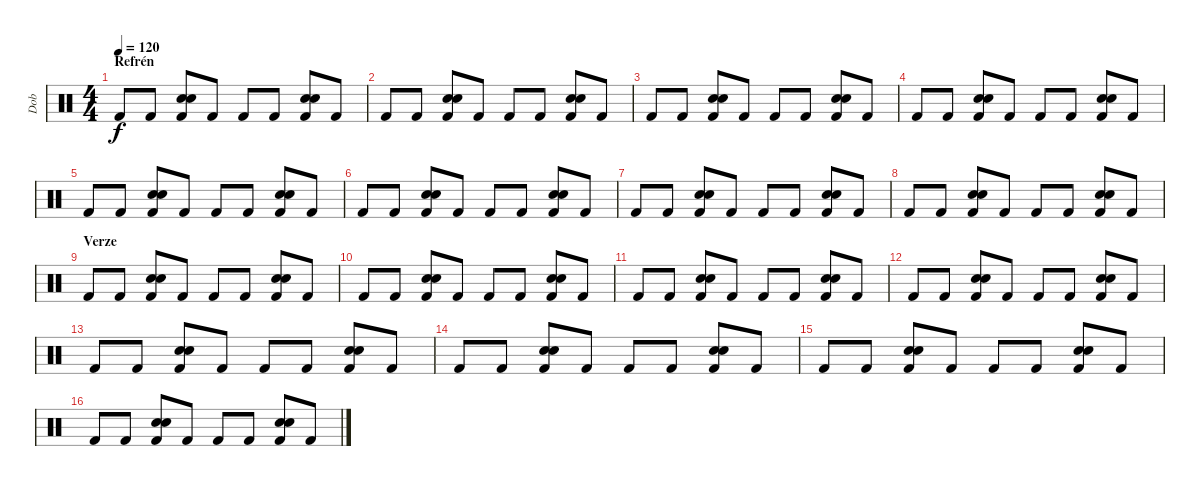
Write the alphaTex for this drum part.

\track ("Dob" "Dob") {instrument percussion}
\staff {score}
\articulation defaults
\ts (4 4)
\section ("" "Refrén")
\tempo 120
\clef neutral
\ks c "Kick (hit) 2".8{dy f} "Kick (hit) 2".8
("Snare (hit) 2" "Snare (hit) 2" "Kick (hit) 2").8 "Kick (hit) 2".8 "Kick (hit) 2".8 "Kick (hit) 2".8 ("Snare (hit) 2" "Snare (hit) 2" "Kick (hit) 2").8 "Kick (hit) 2".8 |
"Kick (hit) 2".8 "Kick (hit) 2".8 ("Snare (hit) 2" "Snare (hit) 2" "Kick (hit) 2").8 "Kick (hit) 2".8 "Kick (hit) 2".8 "Kick (hit) 2".8 ("Snare (hit) 2" "Snare (hit) 2" "Kick (hit) 2").8 "Kick (hit) 2".8 |
"Kick (hit) 2".8 "Kick (hit) 2".8 ("Snare (hit) 2" "Snare (hit) 2" "Kick (hit) 2").8 "Kick (hit) 2".8 "Kick (hit) 2".8 "Kick (hit) 2".8 ("Snare (hit) 2" "Snare (hit) 2" "Kick (hit) 2").8 "Kick (hit) 2".8 |
"Kick (hit) 2".8 "Kick (hit) 2".8 ("Snare (hit) 2" "Snare (hit) 2" "Kick (hit) 2").8 "Kick (hit) 2".8 "Kick (hit) 2".8 "Kick (hit) 2".8 ("Snare (hit) 2" "Snare (hit) 2" "Kick (hit) 2").8 "Kick (hit) 2".8 |
"Kick (hit) 2".8 "Kick (hit) 2".8 ("Snare (hit) 2" "Snare (hit) 2" "Kick (hit) 2").8 "Kick (hit) 2".8 "Kick (hit) 2".8 "Kick (hit) 2".8 ("Snare (hit) 2" "Snare (hit) 2" "Kick (hit) 2").8 "Kick (hit) 2".8 |
"Kick (hit) 2".8 "Kick (hit) 2".8 ("Snare (hit) 2" "Snare (hit) 2" "Kick (hit) 2").8 "Kick (hit) 2".8 "Kick (hit) 2".8 "Kick (hit) 2".8 ("Snare (hit) 2" "Snare (hit) 2" "Kick (hit) 2").8 "Kick (hit) 2".8 |
"Kick (hit) 2".8 "Kick (hit) 2".8 ("Snare (hit) 2" "Snare (hit) 2" "Kick (hit) 2").8 "Kick (hit) 2".8 "Kick (hit) 2".8 "Kick (hit) 2".8 ("Snare (hit) 2" "Snare (hit) 2" "Kick (hit) 2").8 "Kick (hit) 2".8 |
"Kick (hit) 2".8 "Kick (hit) 2".8 ("Snare (hit) 2" "Snare (hit) 2" "Kick (hit) 2").8 "Kick (hit) 2".8 "Kick (hit) 2".8 "Kick (hit) 2".8 ("Snare (hit) 2" "Snare (hit) 2" "Kick (hit) 2").8 "Kick (hit) 2".8 |
\section ("" "Verze")
"Kick (hit) 2".8 "Kick (hit) 2".8 ("Snare (hit) 2" "Snare (hit) 2" "Kick (hit) 2").8 "Kick (hit) 2".8 "Kick (hit) 2".8 "Kick (hit) 2".8 ("Snare (hit) 2" "Snare (hit) 2" "Kick (hit) 2").8 "Kick (hit) 2".8 |
"Kick (hit) 2".8 "Kick (hit) 2".8 ("Snare (hit) 2" "Snare (hit) 2" "Kick (hit) 2").8 "Kick (hit) 2".8 "Kick (hit) 2".8 "Kick (hit) 2".8 ("Snare (hit) 2" "Snare (hit) 2" "Kick (hit) 2").8 "Kick (hit) 2".8 |
"Kick (hit) 2".8 "Kick (hit) 2".8 ("Snare (hit) 2" "Snare (hit) 2" "Kick (hit) 2").8 "Kick (hit) 2".8 "Kick (hit) 2".8 "Kick (hit) 2".8 ("Snare (hit) 2" "Snare (hit) 2" "Kick (hit) 2").8 "Kick (hit) 2".8 |
"Kick (hit) 2".8 "Kick (hit) 2".8 ("Snare (hit) 2" "Snare (hit) 2" "Kick (hit) 2").8 "Kick (hit) 2".8 "Kick (hit) 2".8 "Kick (hit) 2".8 ("Snare (hit) 2" "Snare (hit) 2" "Kick (hit) 2").8 "Kick (hit) 2".8 |
"Kick (hit) 2".8 "Kick (hit) 2".8 ("Snare (hit) 2" "Snare (hit) 2" "Kick (hit) 2").8 "Kick (hit) 2".8 "Kick (hit) 2".8 "Kick (hit) 2".8 ("Snare (hit) 2" "Snare (hit) 2" "Kick (hit) 2").8 "Kick (hit) 2".8 |
"Kick (hit) 2".8 "Kick (hit) 2".8 ("Snare (hit) 2" "Snare (hit) 2" "Kick (hit) 2").8 "Kick (hit) 2".8 "Kick (hit) 2".8 "Kick (hit) 2".8 ("Snare (hit) 2" "Snare (hit) 2" "Kick (hit) 2").8 "Kick (hit) 2".8 |
"Kick (hit) 2".8 "Kick (hit) 2".8 ("Snare (hit) 2" "Snare (hit) 2" "Kick (hit) 2").8 "Kick (hit) 2".8 "Kick (hit) 2".8 "Kick (hit) 2".8 ("Snare (hit) 2" "Snare (hit) 2" "Kick (hit) 2").8 "Kick (hit) 2".8 |
"Kick (hit) 2".8 "Kick (hit) 2".8 ("Snare (hit) 2" "Snare (hit) 2" "Kick (hit) 2").8 "Kick (hit) 2".8 "Kick (hit) 2".8 "Kick (hit) 2".8 ("Snare (hit) 2" "Snare (hit) 2" "Kick (hit) 2").8 "Kick (hit) 2".8
